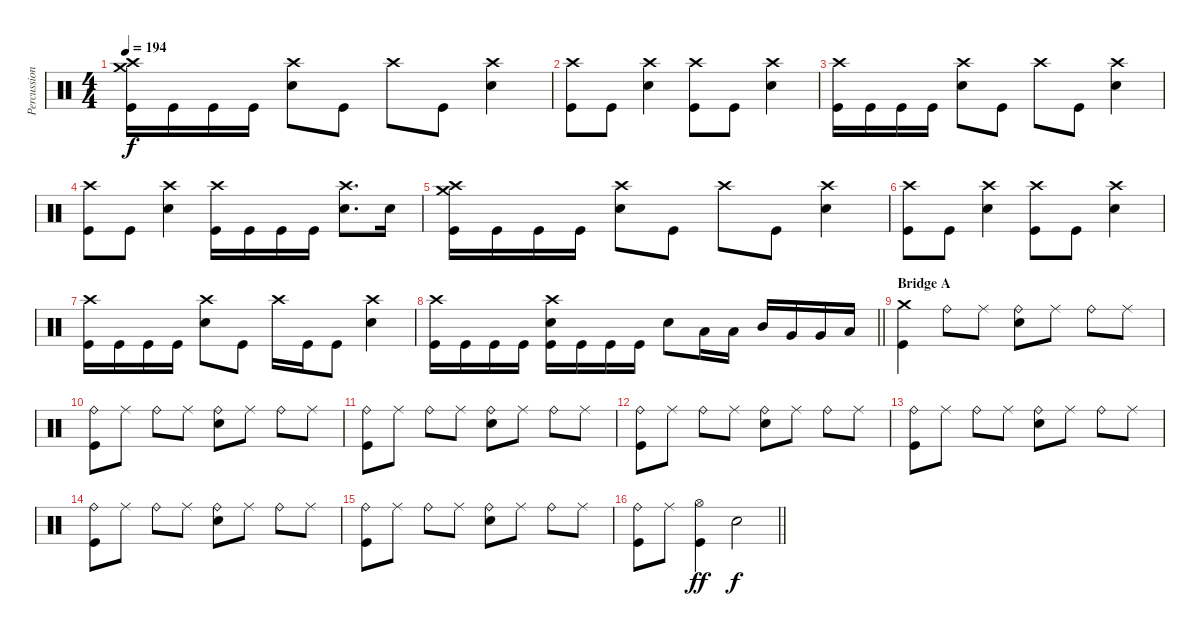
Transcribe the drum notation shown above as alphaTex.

\track ("Percussion" "Percussion") {instrument percussion}
\staff {score}
\articulation defaults
\ts (4 4)
\tempo 194
\clef neutral
\ks c
("Crash high (hit)" "Crash medium (hit)" "Kick (hit)").16{dy f} "Kick (hit)".16 "Kick (hit)".16 "Kick (hit)".16 ("Crash high (hit)" "Electric Snare (hit)").8 "Kick (hit)".8 "Crash high (hit)".8 "Kick (hit)".8 ("Crash high (hit)" "Electric Snare (hit)").4 |
("Crash high (hit)" "Kick (hit)").8 "Kick (hit)".8 ("Crash high (hit)" "Electric Snare (hit)").4 ("Crash high (hit)" "Kick (hit)").8 "Kick (hit)".8 ("Crash high (hit)" "Electric Snare (hit)").4 |
("Crash high (hit)" "Kick (hit)").16 "Kick (hit)".16 "Kick (hit)".16 "Kick (hit)".16 ("Crash high (hit)" "Electric Snare (hit)").8 "Kick (hit)".8 "Crash high (hit)".8 "Kick (hit)".8 ("Crash high (hit)" "Electric Snare (hit)").4 |
("Crash high (hit)" "Kick (hit)").8 "Kick (hit)".8 ("Crash high (hit)" "Electric Snare (hit)").4 ("Crash high (hit)" "Kick (hit)").16 "Kick (hit)".16 "Kick (hit)".16 "Kick (hit)".16 ("Crash high (hit)" "Electric Snare (hit)").8{d} "Electric Snare (hit)".16 |
("Crash high (hit)" "Crash medium (hit)" "Kick (hit)").16 "Kick (hit)".16 "Kick (hit)".16 "Kick (hit)".16 ("Crash high (hit)" "Electric Snare (hit)").8 "Kick (hit)".8 "Crash high (hit)".8 "Kick (hit)".8 ("Crash high (hit)" "Electric Snare (hit)").4 |
("Crash high (hit)" "Kick (hit)").8 "Kick (hit)".8 ("Crash high (hit)" "Electric Snare (hit)").4 ("Crash high (hit)" "Kick (hit)").8 "Kick (hit)".8 ("Crash high (hit)" "Electric Snare (hit)").4 |
("Crash high (hit)" "Kick (hit)").16 "Kick (hit)".16 "Kick (hit)".16 "Kick (hit)".16 ("Crash high (hit)" "Electric Snare (hit)").8 "Kick (hit)".8 "Crash high (hit)".16 "Kick (hit)".16 "Kick (hit)".8 ("Crash high (hit)" "Electric Snare (hit)").4 |
\barLineRight lightlight
("Crash high (hit)" "Kick (hit)").16 "Kick (hit)".16 "Kick (hit)".16 "Kick (hit)".16 ("Crash high (hit)" "Electric Snare (hit)" "Kick (hit)").16 "Kick (hit)".16 "Kick (hit)".16 "Kick (hit)".16 "Electric Snare (hit)".8 "Low Tom (hit)".16 "Low Tom (hit)".16 "Mid Tom (hit)".16 "Very Low Tom (hit)".16 "Very Low Tom (hit)".16 "Low Floor Tom (hit)".16 |
\section ("" "Bridge A")
("Crash medium (hit)" "Kick (hit)").4 "Ride (bell)".8 "Ride (middle)".8 ("Ride (bell)" "Electric Snare (hit)").8 "Ride (middle)".8 "Ride (bell)".8 "Ride (middle)".8 |
("Ride (bell)" "Kick (hit)").8 "Ride (middle)".8 "Ride (bell)".8 "Ride (middle)".8 ("Ride (bell)" "Electric Snare (hit)").8 "Ride (middle)".8 "Ride (bell)".8 "Ride (middle)".8 |
("Ride (bell)" "Kick (hit)").8 "Ride (middle)".8 "Ride (bell)".8 "Ride (middle)".8 ("Ride (bell)" "Electric Snare (hit)").8 "Ride (middle)".8 "Ride (bell)".8 "Ride (middle)".8 |
("Ride (bell)" "Kick (hit)").8 "Ride (middle)".8 "Ride (bell)".8 "Ride (middle)".8 ("Ride (bell)" "Electric Snare (hit)").8 "Ride (middle)".8 "Ride (bell)".8 "Ride (middle)".8 |
("Ride (bell)" "Kick (hit)").8 "Ride (middle)".8 "Ride (bell)".8 "Ride (middle)".8 ("Ride (bell)" "Electric Snare (hit)").8 "Ride (middle)".8 "Ride (bell)".8 "Ride (middle)".8 |
("Ride (bell)" "Kick (hit)").8 "Ride (middle)".8 "Ride (bell)".8 "Ride (middle)".8 ("Ride (bell)" "Electric Snare (hit)").8 "Ride (middle)".8 "Ride (bell)".8 "Ride (middle)".8 |
("Ride (bell)" "Kick (hit)").8 "Ride (middle)".8 "Ride (bell)".8 "Ride (middle)".8 ("Ride (bell)" "Electric Snare (hit)").8 "Ride (middle)".8 "Ride (bell)".8 "Ride (middle)".8 |
\barLineRight lightlight
("Ride (bell)" "Kick (hit)").8 "Ride (middle)".8 ("Hi-Hat (open)" "Kick (hit)").4{dy ff} "Electric Snare (hit)".2{dy f}
